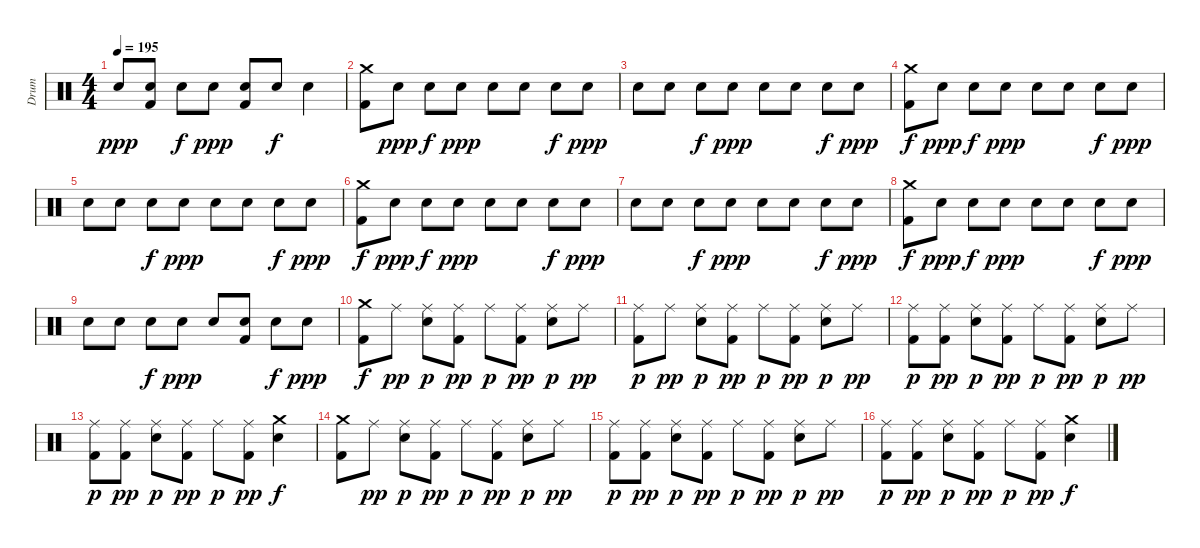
\track ("Drum" "Drum") {instrument percussion}
\staff {score}
\articulation defaults
\ts (4 4)
\tempo 195
\clef neutral
\ks c "Electric Snare (hit)".8{dy ppp}
("Electric Snare (hit)" "Kick (hit) 2").8 "Electric Snare (hit)".8{dy f} "Electric Snare (hit)".8{dy ppp} ("Electric Snare (hit)" "Kick (hit) 2").8 "Electric Snare (hit)".8{dy f} "Electric Snare (hit)".4 |
("Crash medium (hit)" "Kick (hit) 2").8 "Electric Snare (hit)".8{dy ppp} "Electric Snare (hit)".8{dy f} "Electric Snare (hit)".8{dy ppp} "Electric Snare (hit)".8 "Electric Snare (hit)".8 "Electric Snare (hit)".8{dy f} "Electric Snare (hit)".8{dy ppp} |
"Electric Snare (hit)".8 "Electric Snare (hit)".8 "Electric Snare (hit)".8{dy f} "Electric Snare (hit)".8{dy ppp} "Electric Snare (hit)".8 "Electric Snare (hit)".8 "Electric Snare (hit)".8{dy f} "Electric Snare (hit)".8{dy ppp} |
("Crash medium (hit)" "Kick (hit) 2").8{dy f} "Electric Snare (hit)".8{dy ppp} "Electric Snare (hit)".8{dy f} "Electric Snare (hit)".8{dy ppp} "Electric Snare (hit)".8 "Electric Snare (hit)".8 "Electric Snare (hit)".8{dy f} "Electric Snare (hit)".8{dy ppp} |
"Electric Snare (hit)".8 "Electric Snare (hit)".8 "Electric Snare (hit)".8{dy f} "Electric Snare (hit)".8{dy ppp} "Electric Snare (hit)".8 "Electric Snare (hit)".8 "Electric Snare (hit)".8{dy f} "Electric Snare (hit)".8{dy ppp} |
("Crash medium (hit)" "Kick (hit) 2").8{dy f} "Electric Snare (hit)".8{dy ppp} "Electric Snare (hit)".8{dy f} "Electric Snare (hit)".8{dy ppp} "Electric Snare (hit)".8 "Electric Snare (hit)".8 "Electric Snare (hit)".8{dy f} "Electric Snare (hit)".8{dy ppp} |
"Electric Snare (hit)".8 "Electric Snare (hit)".8 "Electric Snare (hit)".8{dy f} "Electric Snare (hit)".8{dy ppp} "Electric Snare (hit)".8 "Electric Snare (hit)".8 "Electric Snare (hit)".8{dy f} "Electric Snare (hit)".8{dy ppp} |
("Crash medium (hit)" "Kick (hit) 2").8{dy f} "Electric Snare (hit)".8{dy ppp} "Electric Snare (hit)".8{dy f} "Electric Snare (hit)".8{dy ppp} "Electric Snare (hit)".8 "Electric Snare (hit)".8 "Electric Snare (hit)".8{dy f} "Electric Snare (hit)".8{dy ppp} |
"Electric Snare (hit)".8 "Electric Snare (hit)".8 "Electric Snare (hit)".8{dy f} "Electric Snare (hit)".8{dy ppp} "Electric Snare (hit)".8 ("Electric Snare (hit)" "Kick (hit) 2").8 "Electric Snare (hit)".8{dy f} "Electric Snare (hit)".8{dy ppp} |
("Crash medium (hit)" "Kick (hit) 2").8{dy f} "Ride (middle)".8{dy pp} ("Ride (middle)" "Electric Snare (hit)").8{dy p} ("Ride (middle)" "Kick (hit) 2").8{dy pp} "Ride (middle)".8{dy p} ("Ride (middle)" "Kick (hit) 2").8{dy pp} ("Ride (middle)" "Electric Snare (hit)").8{dy p} "Ride (middle)".8{dy pp} |
("Ride (middle)" "Kick (hit) 2").8{dy p} "Ride (middle)".8{dy pp} ("Ride (middle)" "Electric Snare (hit)").8{dy p} ("Ride (middle)" "Kick (hit) 2").8{dy pp} "Ride (middle)".8{dy p} ("Ride (middle)" "Kick (hit) 2").8{dy pp} ("Ride (middle)" "Electric Snare (hit)").8{dy p} "Ride (middle)".8{dy pp} |
("Ride (middle)" "Kick (hit) 2").8{dy p} ("Ride (middle)" "Kick (hit) 2").8{dy pp} ("Ride (middle)" "Electric Snare (hit)").8{dy p} ("Ride (middle)" "Kick (hit) 2").8{dy pp} "Ride (middle)".8{dy p} ("Ride (middle)" "Kick (hit) 2").8{dy pp} ("Ride (middle)" "Electric Snare (hit)").8{dy p} "Ride (middle)".8{dy pp} |
("Ride (middle)" "Kick (hit) 2").8{dy p} ("Ride (middle)" "Kick (hit) 2").8{dy pp} ("Ride (middle)" "Electric Snare (hit)").8{dy p} ("Ride (middle)" "Kick (hit) 2").8{dy pp} "Ride (middle)".8{dy p} ("Ride (middle)" "Kick (hit) 2").8{dy pp} ("Crash medium (hit)" "Electric Snare (hit)").4{dy f} |
("Crash medium (hit)" "Kick (hit) 2").8 "Ride (middle)".8{dy pp} ("Ride (middle)" "Electric Snare (hit)").8{dy p} ("Ride (middle)" "Kick (hit) 2").8{dy pp} "Ride (middle)".8{dy p} ("Ride (middle)" "Kick (hit) 2").8{dy pp} ("Ride (middle)" "Electric Snare (hit)").8{dy p} "Ride (middle)".8{dy pp} |
("Ride (middle)" "Kick (hit) 2").8{dy p} ("Ride (middle)" "Kick (hit) 2").8{dy pp} ("Ride (middle)" "Electric Snare (hit)").8{dy p} ("Ride (middle)" "Kick (hit) 2").8{dy pp} "Ride (middle)".8{dy p} ("Ride (middle)" "Kick (hit) 2").8{dy pp} ("Ride (middle)" "Electric Snare (hit)").8{dy p} "Ride (middle)".8{dy pp} |
("Ride (middle)" "Kick (hit) 2").8{dy p} ("Ride (middle)" "Kick (hit) 2").8{dy pp} ("Ride (middle)" "Electric Snare (hit)").8{dy p} ("Ride (middle)" "Kick (hit) 2").8{dy pp} "Ride (middle)".8{dy p} ("Ride (middle)" "Kick (hit) 2").8{dy pp} ("Crash medium (hit)" "Electric Snare (hit)").4{dy f}
